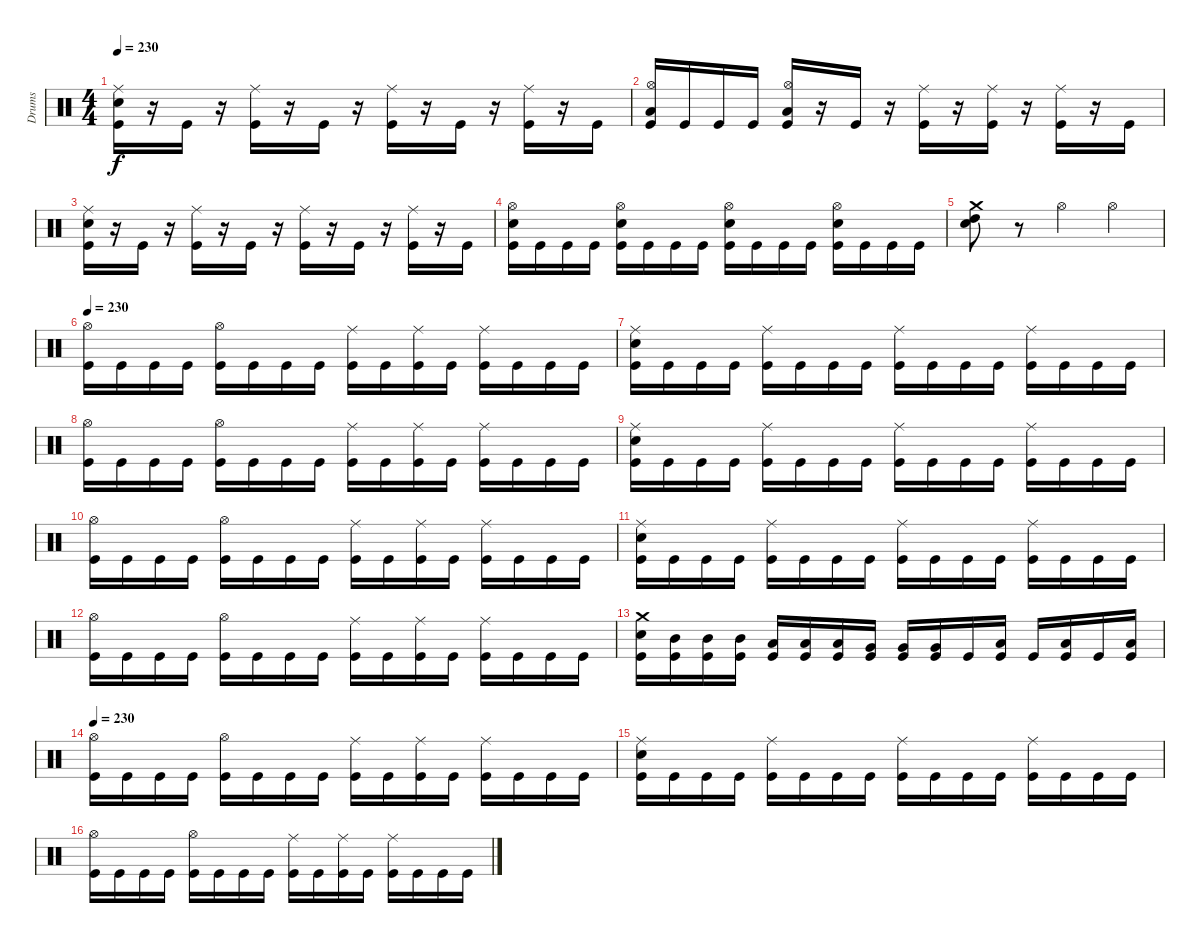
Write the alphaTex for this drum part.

\track ("Drums" "Drums") {instrument percussion}
\staff {score}
\articulation defaults
\ts (4 4)
\tempo 230
\clef neutral
\ks c
("Ride (middle)" "Electric Snare (hit)" "Kick (hit)").16{dy f} r.16 "Kick (hit)".16 r.16 ("Ride (middle)" "Kick (hit)").16 r.16 "Kick (hit)".16 r.16 ("Ride (middle)" "Kick (hit)").16 r.16 "Kick (hit)".16 r.16 ("Ride (middle)" "Kick (hit)").16 r.16 "Kick (hit)".16 |
("Hi-Hat (open)" "Low Floor Tom (hit)" "Kick (hit)").16 "Kick (hit)".16 "Kick (hit)".16 "Kick (hit)".16 ("Hi-Hat (open)" "Low Floor Tom (hit)" "Kick (hit)").16 r.16 "Kick (hit)".16 r.16 ("Ride (middle)" "Kick (hit)").16 r.16 ("Ride (middle)" "Kick (hit)").16 r.16 ("Ride (middle)" "Kick (hit)").16 r.16 "Kick (hit)".16 |
("Ride (middle)" "Electric Snare (hit)" "Kick (hit)").16 r.16 "Kick (hit)".16 r.16 ("Ride (middle)" "Kick (hit)").16 r.16 "Kick (hit)".16 r.16 ("Ride (middle)" "Kick (hit)").16 r.16 "Kick (hit)".16 r.16 ("Ride (middle)" "Kick (hit)").16 r.16 "Kick (hit)".16 |
("Hi-Hat (open)" "Electric Snare (hit)" "Kick (hit)").16 "Kick (hit)".16 "Kick (hit)".16 "Kick (hit)".16 ("Hi-Hat (open)" "Electric Snare (hit)" "Kick (hit)").16 "Kick (hit)".16 "Kick (hit)".16 "Kick (hit)".16 ("Hi-Hat (open)" "Electric Snare (hit)" "Kick (hit)").16 "Kick (hit)".16 "Kick (hit)".16 "Kick (hit)".16 ("Hi-Hat (open)" "Electric Snare (hit)" "Kick (hit)").16 "Kick (hit)".16 "Kick (hit)".16 "Kick (hit)".16 |
("Crash medium (hit)" "Electric Snare (hit)" "High Tom (hit)").8 r.8 "Hi-Hat (open)".4 "Hi-Hat (open)".4 |
\tempo 230
("Hi-Hat (open)" "Kick (hit)").16 "Kick (hit)".16 "Kick (hit)".16 "Kick (hit)".16 ("Hi-Hat (open)" "Kick (hit)").16 "Kick (hit)".16 "Kick (hit)".16 "Kick (hit)".16 ("Ride (middle)" "Kick (hit)").16 "Kick (hit)".16 ("Ride (middle)" "Kick (hit)").16 "Kick (hit)".16 ("Ride (middle)" "Kick (hit)").16 "Kick (hit)".16 "Kick (hit)".16 "Kick (hit)".16 |
("Ride (middle)" "Electric Snare (hit)" "Kick (hit)").16 "Kick (hit)".16 "Kick (hit)".16 "Kick (hit)".16 ("Ride (middle)" "Kick (hit)").16 "Kick (hit)".16 "Kick (hit)".16 "Kick (hit)".16 ("Ride (middle)" "Kick (hit)").16 "Kick (hit)".16 "Kick (hit)".16 "Kick (hit)".16 ("Ride (middle)" "Kick (hit)").16 "Kick (hit)".16 "Kick (hit)".16 "Kick (hit)".16 |
("Hi-Hat (open)" "Kick (hit)").16 "Kick (hit)".16 "Kick (hit)".16 "Kick (hit)".16 ("Hi-Hat (open)" "Kick (hit)").16 "Kick (hit)".16 "Kick (hit)".16 "Kick (hit)".16 ("Ride (middle)" "Kick (hit)").16 "Kick (hit)".16 ("Ride (middle)" "Kick (hit)").16 "Kick (hit)".16 ("Ride (middle)" "Kick (hit)").16 "Kick (hit)".16 "Kick (hit)".16 "Kick (hit)".16 |
("Ride (middle)" "Electric Snare (hit)" "Kick (hit)").16 "Kick (hit)".16 "Kick (hit)".16 "Kick (hit)".16 ("Ride (middle)" "Kick (hit)").16 "Kick (hit)".16 "Kick (hit)".16 "Kick (hit)".16 ("Ride (middle)" "Kick (hit)").16 "Kick (hit)".16 "Kick (hit)".16 "Kick (hit)".16 ("Ride (middle)" "Kick (hit)").16 "Kick (hit)".16 "Kick (hit)".16 "Kick (hit)".16 |
("Hi-Hat (open)" "Kick (hit)").16 "Kick (hit)".16 "Kick (hit)".16 "Kick (hit)".16 ("Hi-Hat (open)" "Kick (hit)").16 "Kick (hit)".16 "Kick (hit)".16 "Kick (hit)".16 ("Ride (middle)" "Kick (hit)").16 "Kick (hit)".16 ("Ride (middle)" "Kick (hit)").16 "Kick (hit)".16 ("Ride (middle)" "Kick (hit)").16 "Kick (hit)".16 "Kick (hit)".16 "Kick (hit)".16 |
("Ride (middle)" "Electric Snare (hit)" "Kick (hit)").16 "Kick (hit)".16 "Kick (hit)".16 "Kick (hit)".16 ("Ride (middle)" "Kick (hit)").16 "Kick (hit)".16 "Kick (hit)".16 "Kick (hit)".16 ("Ride (middle)" "Kick (hit)").16 "Kick (hit)".16 "Kick (hit)".16 "Kick (hit)".16 ("Ride (middle)" "Kick (hit)").16 "Kick (hit)".16 "Kick (hit)".16 "Kick (hit)".16 |
("Hi-Hat (open)" "Kick (hit)").16 "Kick (hit)".16 "Kick (hit)".16 "Kick (hit)".16 ("Hi-Hat (open)" "Kick (hit)").16 "Kick (hit)".16 "Kick (hit)".16 "Kick (hit)".16 ("Ride (middle)" "Kick (hit)").16 "Kick (hit)".16 ("Ride (middle)" "Kick (hit)").16 "Kick (hit)".16 ("Ride (middle)" "Kick (hit)").16 "Kick (hit)".16 "Kick (hit)".16 "Kick (hit)".16 |
("Crash medium (hit)" "Electric Snare (hit)" "Kick (hit)").16 ("Mid Tom (hit)" "Kick (hit)").16 ("Mid Tom (hit)" "Kick (hit)").16 ("Mid Tom (hit)" "Kick (hit)").16 ("Low Tom (hit)" "Kick (hit)").16 ("Low Tom (hit)" "Kick (hit)").16 ("Low Tom (hit)" "Kick (hit)").16 ("Very Low Tom (hit)" "Kick (hit)").16 ("Very Low Tom (hit)" "Kick (hit)").16 ("Very Low Tom (hit)" "Kick (hit)").16 "Kick (hit)".16 ("Low Floor Tom (hit)" "Kick (hit)").16 "Kick (hit)".16 ("Low Floor Tom (hit)" "Kick (hit)").16 "Kick (hit)".16 ("Low Floor Tom (hit)" "Kick (hit)").16 |
\tempo 230
("Hi-Hat (open)" "Kick (hit)").16 "Kick (hit)".16 "Kick (hit)".16 "Kick (hit)".16 ("Hi-Hat (open)" "Kick (hit)").16 "Kick (hit)".16 "Kick (hit)".16 "Kick (hit)".16 ("Ride (middle)" "Kick (hit)").16 "Kick (hit)".16 ("Ride (middle)" "Kick (hit)").16 "Kick (hit)".16 ("Ride (middle)" "Kick (hit)").16 "Kick (hit)".16 "Kick (hit)".16 "Kick (hit)".16 |
("Ride (middle)" "Electric Snare (hit)" "Kick (hit)").16 "Kick (hit)".16 "Kick (hit)".16 "Kick (hit)".16 ("Ride (middle)" "Kick (hit)").16 "Kick (hit)".16 "Kick (hit)".16 "Kick (hit)".16 ("Ride (middle)" "Kick (hit)").16 "Kick (hit)".16 "Kick (hit)".16 "Kick (hit)".16 ("Ride (middle)" "Kick (hit)").16 "Kick (hit)".16 "Kick (hit)".16 "Kick (hit)".16 |
("Hi-Hat (open)" "Kick (hit)").16 "Kick (hit)".16 "Kick (hit)".16 "Kick (hit)".16 ("Hi-Hat (open)" "Kick (hit)").16 "Kick (hit)".16 "Kick (hit)".16 "Kick (hit)".16 ("Ride (middle)" "Kick (hit)").16 "Kick (hit)".16 ("Ride (middle)" "Kick (hit)").16 "Kick (hit)".16 ("Ride (middle)" "Kick (hit)").16 "Kick (hit)".16 "Kick (hit)".16 "Kick (hit)".16
